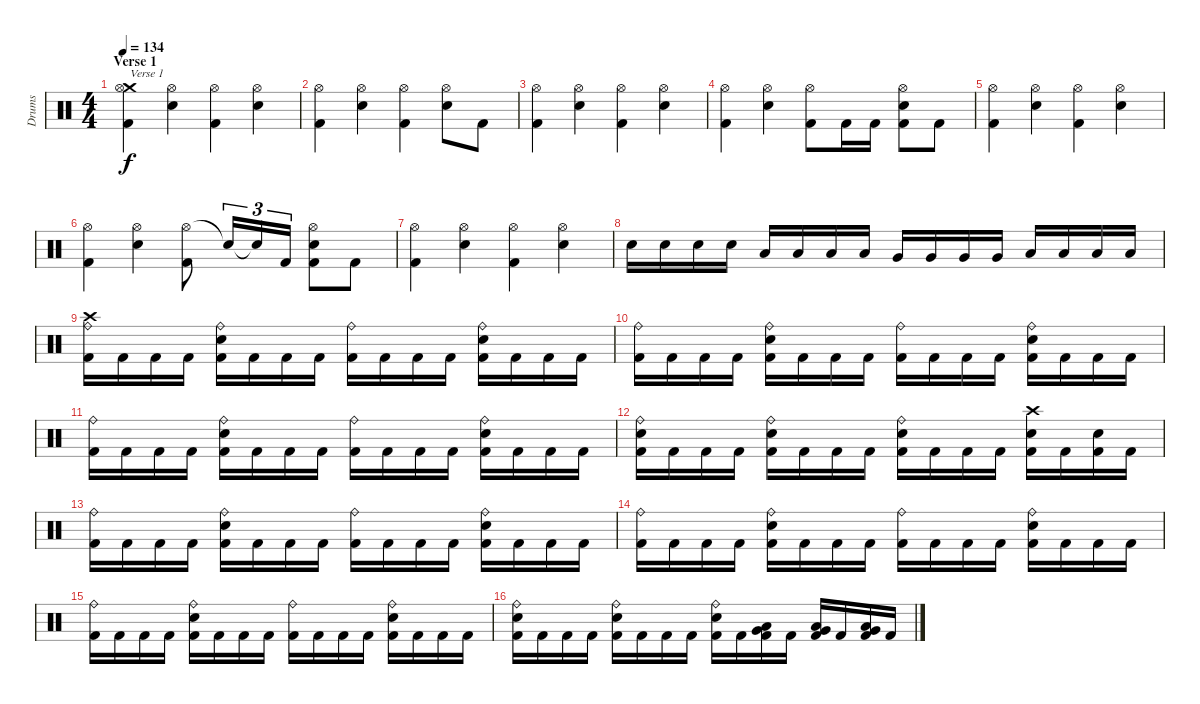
\track ("Drums" "Drums") {instrument percussion}
\staff {score}
\articulation defaults
\ts (4 4)
\section ("" "Verse 1")
\tempo 134
\clef neutral
\ks c
("Crash medium (hit)" "Hi-Hat (open)" "Kick (hit) 2").4{txt "Verse 1" dy f} ("Hi-Hat (open)" "Electric Snare (hit)").4 ("Hi-Hat (open)" "Kick (hit) 2").4 ("Hi-Hat (open)" "Electric Snare (hit)").4 |
("Hi-Hat (open)" "Kick (hit) 2").4 ("Hi-Hat (open)" "Electric Snare (hit)").4 ("Hi-Hat (open)" "Kick (hit) 2").4 ("Hi-Hat (open)" "Electric Snare (hit)").8 "Kick (hit) 2".8 |
("Hi-Hat (open)" "Kick (hit) 2").4 ("Hi-Hat (open)" "Electric Snare (hit)").4 ("Hi-Hat (open)" "Kick (hit) 2").4 ("Hi-Hat (open)" "Electric Snare (hit)").4 |
("Hi-Hat (open)" "Kick (hit) 2").4 ("Hi-Hat (open)" "Electric Snare (hit)").4 ("Hi-Hat (open)" "Kick (hit) 2").8 "Kick (hit) 2".16 "Kick (hit) 2".16 ("Hi-Hat (open)" "Electric Snare (hit)" "Kick (hit) 2").8 "Kick (hit) 2".8 |
("Hi-Hat (open)" "Kick (hit) 2").4 ("Hi-Hat (open)" "Electric Snare (hit)").4 ("Hi-Hat (open)" "Kick (hit) 2").4 ("Hi-Hat (open)" "Electric Snare (hit)").4 |
("Hi-Hat (open)" "Kick (hit) 2").4 ("Hi-Hat (open)" "Electric Snare (hit)").4 ("Hi-Hat (open)" "Kick (hit) 2").8 "Snare (hit)"{t}.16{tu (3 2)} "Snare (hit)"{t}.16{tu (3 2)} "Kick (hit) 2".16{tu (3 2)} ("Hi-Hat (open)" "Electric Snare (hit)" "Kick (hit) 2").8 "Kick (hit) 2".8 |
("Hi-Hat (open)" "Kick (hit) 2").4 ("Hi-Hat (open)" "Electric Snare (hit)").4 ("Hi-Hat (open)" "Kick (hit) 2").4 ("Hi-Hat (open)" "Electric Snare (hit)").4 |
"Electric Snare (hit)".16 "Electric Snare (hit)".16 "Electric Snare (hit)".16 "Electric Snare (hit)".16 "Low Floor Tom (hit)".16 "Low Floor Tom (hit)".16 "Low Floor Tom (hit)".16 "Low Floor Tom (hit)".16 "Very Low Tom (hit)".16 "Very Low Tom (hit)".16 "Very Low Tom (hit)".16 "Very Low Tom (hit)".16 "Low Tom (hit)".16 "Low Tom (hit)".16 "Low Tom (hit)".16 "Low Tom (hit)".16 |
("Crash high (hit)" "Ride (bell)" "Kick (hit) 2").16 "Kick (hit) 2".16 "Kick (hit) 2".16 "Kick (hit) 2".16 ("Ride (bell)" "Electric Snare (hit)" "Kick (hit) 2").16 "Kick (hit) 2".16 "Kick (hit) 2".16 "Kick (hit) 2".16 ("Ride (bell)" "Kick (hit) 2").16 "Kick (hit) 2".16 "Kick (hit) 2".16 "Kick (hit) 2".16 ("Ride (bell)" "Electric Snare (hit)" "Kick (hit) 2").16 "Kick (hit) 2".16 "Kick (hit) 2".16 "Kick (hit) 2".16 |
("Ride (bell)" "Kick (hit) 2").16 "Kick (hit) 2".16 "Kick (hit) 2".16 "Kick (hit) 2".16 ("Ride (bell)" "Electric Snare (hit)" "Kick (hit) 2").16 "Kick (hit) 2".16 "Kick (hit) 2".16 "Kick (hit) 2".16 ("Ride (bell)" "Kick (hit) 2").16 "Kick (hit) 2".16 "Kick (hit) 2".16 "Kick (hit) 2".16 ("Ride (bell)" "Electric Snare (hit)" "Kick (hit) 2").16 "Kick (hit) 2".16 "Kick (hit) 2".16 "Kick (hit) 2".16 |
("Ride (bell)" "Kick (hit) 2").16 "Kick (hit) 2".16 "Kick (hit) 2".16 "Kick (hit) 2".16 ("Ride (bell)" "Electric Snare (hit)" "Kick (hit) 2").16 "Kick (hit) 2".16 "Kick (hit) 2".16 "Kick (hit) 2".16 ("Ride (bell)" "Kick (hit) 2").16 "Kick (hit) 2".16 "Kick (hit) 2".16 "Kick (hit) 2".16 ("Ride (bell)" "Electric Snare (hit)" "Kick (hit) 2").16 "Kick (hit) 2".16 "Kick (hit) 2".16 "Kick (hit) 2".16 |
("Ride (bell)" "Electric Snare (hit)" "Kick (hit) 2").16 "Kick (hit) 2".16 "Kick (hit) 2".16 "Kick (hit) 2".16 ("Ride (bell)" "Electric Snare (hit)" "Kick (hit) 2").16 "Kick (hit) 2".16 "Kick (hit) 2".16 "Kick (hit) 2".16 ("Ride (bell)" "Electric Snare (hit)" "Kick (hit) 2").16 "Kick (hit) 2".16 "Kick (hit) 2".16 "Kick (hit) 2".16 ("Crash high (hit)" "Electric Snare (hit)" "Kick (hit) 2").16 "Kick (hit) 2".16 ("Electric Snare (hit)" "Kick (hit) 2").16 "Kick (hit) 2".16 |
("Ride (bell)" "Kick (hit) 2").16 "Kick (hit) 2".16 "Kick (hit) 2".16 "Kick (hit) 2".16 ("Ride (bell)" "Electric Snare (hit)" "Kick (hit) 2").16 "Kick (hit) 2".16 "Kick (hit) 2".16 "Kick (hit) 2".16 ("Ride (bell)" "Kick (hit) 2").16 "Kick (hit) 2".16 "Kick (hit) 2".16 "Kick (hit) 2".16 ("Ride (bell)" "Electric Snare (hit)" "Kick (hit) 2").16 "Kick (hit) 2".16 "Kick (hit) 2".16 "Kick (hit) 2".16 |
("Ride (bell)" "Kick (hit) 2").16 "Kick (hit) 2".16 "Kick (hit) 2".16 "Kick (hit) 2".16 ("Ride (bell)" "Electric Snare (hit)" "Kick (hit) 2").16 "Kick (hit) 2".16 "Kick (hit) 2".16 "Kick (hit) 2".16 ("Ride (bell)" "Kick (hit) 2").16 "Kick (hit) 2".16 "Kick (hit) 2".16 "Kick (hit) 2".16 ("Ride (bell)" "Electric Snare (hit)" "Kick (hit) 2").16 "Kick (hit) 2".16 "Kick (hit) 2".16 "Kick (hit) 2".16 |
("Ride (bell)" "Kick (hit) 2").16 "Kick (hit) 2".16 "Kick (hit) 2".16 "Kick (hit) 2".16 ("Ride (bell)" "Electric Snare (hit)" "Kick (hit) 2").16 "Kick (hit) 2".16 "Kick (hit) 2".16 "Kick (hit) 2".16 ("Ride (bell)" "Kick (hit) 2").16 "Kick (hit) 2".16 "Kick (hit) 2".16 "Kick (hit) 2".16 ("Ride (bell)" "Electric Snare (hit)" "Kick (hit) 2").16 "Kick (hit) 2".16 "Kick (hit) 2".16 "Kick (hit) 2".16 |
("Ride (bell)" "Electric Snare (hit)" "Kick (hit) 2").16 "Kick (hit) 2".16 "Kick (hit) 2".16 "Kick (hit) 2".16 ("Ride (bell)" "Electric Snare (hit)" "Kick (hit) 2").16 "Kick (hit) 2".16 "Kick (hit) 2".16 "Kick (hit) 2".16 ("Ride (bell)" "Electric Snare (hit)" "Kick (hit) 2").16 "Kick (hit) 2".16 ("Very Low Tom (hit)" "Low Floor Tom (hit)" "Kick (hit) 2").16 "Kick (hit) 2".16 ("Very Low Tom (hit)" "Low Floor Tom (hit)" "Kick (hit) 2").16 "Kick (hit) 2".16 ("Very Low Tom (hit)" "Low Floor Tom (hit)" "Kick (hit) 2").16 "Kick (hit) 2".16
